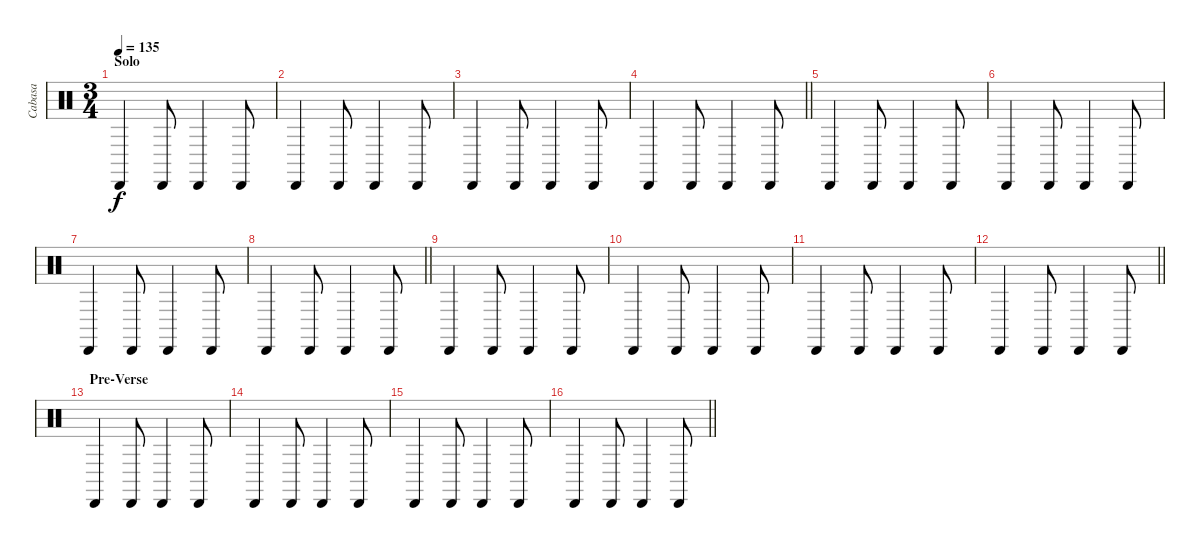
\track ("Cabasa" "Cabasa") {instrument percussion}
\staff {score}
\articulation defaults
\ts (3 4)
\section ("" "Solo")
\tempo 135
\clef neutral
\ks c "Cabasa (hit)".4{dy f} "Cabasa (hit)".8 "Cabasa (hit)".4 "Cabasa (hit)".8
|
"Cabasa (hit)".4 "Cabasa (hit)".8 "Cabasa (hit)".4 "Cabasa (hit)".8 |
"Cabasa (hit)".4 "Cabasa (hit)".8 "Cabasa (hit)".4 "Cabasa (hit)".8 |
\barLineRight lightlight "Cabasa (hit)".4 "Cabasa (hit)".8 "Cabasa (hit)".4 "Cabasa (hit)".8
|
"Cabasa (hit)".4 "Cabasa (hit)".8 "Cabasa (hit)".4 "Cabasa (hit)".8 |
"Cabasa (hit)".4 "Cabasa (hit)".8 "Cabasa (hit)".4 "Cabasa (hit)".8 |
"Cabasa (hit)".4 "Cabasa (hit)".8 "Cabasa (hit)".4 "Cabasa (hit)".8 |
\barLineRight lightlight "Cabasa (hit)".4 "Cabasa (hit)".8 "Cabasa (hit)".4 "Cabasa (hit)".8
|
"Cabasa (hit)".4 "Cabasa (hit)".8 "Cabasa (hit)".4 "Cabasa (hit)".8 |
"Cabasa (hit)".4 "Cabasa (hit)".8 "Cabasa (hit)".4 "Cabasa (hit)".8 |
"Cabasa (hit)".4 "Cabasa (hit)".8 "Cabasa (hit)".4 "Cabasa (hit)".8 |
\barLineRight lightlight "Cabasa (hit)".4 "Cabasa (hit)".8 "Cabasa (hit)".4 "Cabasa (hit)".8
|
\section ("" "Pre-Verse")
"Cabasa (hit)".4 "Cabasa (hit)".8 "Cabasa (hit)".4 "Cabasa (hit)".8 |
"Cabasa (hit)".4 "Cabasa (hit)".8 "Cabasa (hit)".4 "Cabasa (hit)".8 |
"Cabasa (hit)".4 "Cabasa (hit)".8 "Cabasa (hit)".4 "Cabasa (hit)".8 |
\barLineRight lightlight "Cabasa (hit)".4 "Cabasa (hit)".8 "Cabasa (hit)".4 "Cabasa (hit)".8
